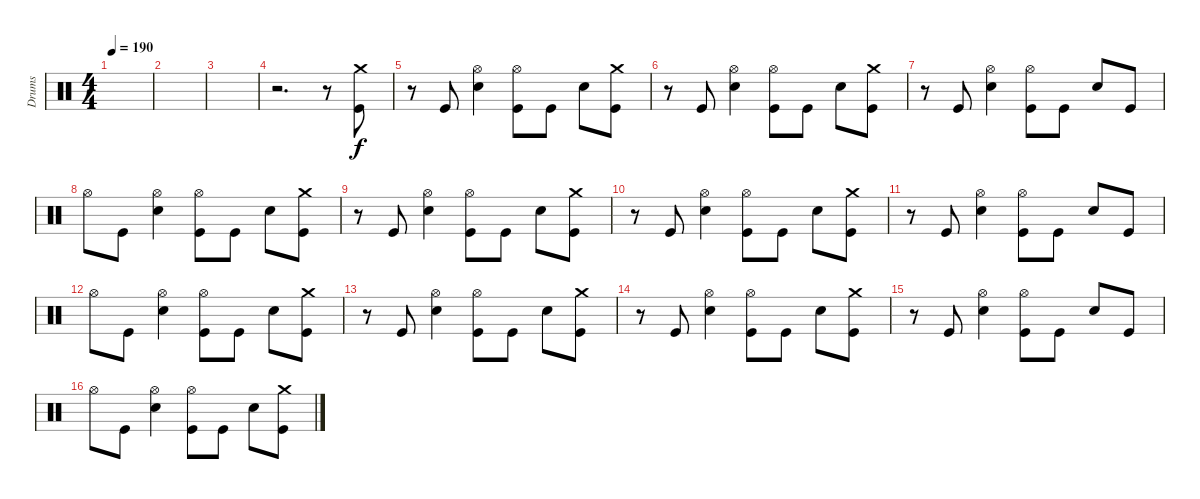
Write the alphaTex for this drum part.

\track ("Drums" "Drums") {instrument percussion}
\staff {score}
\articulation defaults
\ts (4 4)
\tempo 190
\clef neutral
\ks c
|
|
|
r.2{d} r.8 ("Crash medium (hit)" "Kick (hit)").8 |
r.8 "Kick (hit)".8 ("Hi-Hat (open)" "Snare (hit) 2").4 ("Hi-Hat (open)" "Kick (hit)").8 "Kick (hit)".8 "Snare (hit) 2".8 ("Crash medium (hit)" "Kick (hit)").8 |
r.8 "Kick (hit)".8 ("Hi-Hat (open)" "Snare (hit) 2").4 ("Hi-Hat (open)" "Kick (hit)").8 "Kick (hit)".8 "Snare (hit) 2".8 ("Crash medium (hit)" "Kick (hit)").8 |
r.8 "Kick (hit)".8 ("Hi-Hat (open)" "Snare (hit) 2").4 ("Hi-Hat (open)" "Kick (hit)").8 "Kick (hit)".8 "Snare (hit) 2".8 "Kick (hit)".8 |
"Hi-Hat (open)".8 "Kick (hit)".8 ("Hi-Hat (open)" "Snare (hit) 2").4 ("Hi-Hat (open)" "Kick (hit)").8 "Kick (hit)".8 "Snare (hit) 2".8 ("Crash medium (hit)" "Kick (hit)").8 |
r.8 "Kick (hit)".8 ("Hi-Hat (open)" "Snare (hit) 2").4 ("Hi-Hat (open)" "Kick (hit)").8 "Kick (hit)".8 "Snare (hit) 2".8 ("Crash medium (hit)" "Kick (hit)").8 |
r.8 "Kick (hit)".8 ("Hi-Hat (open)" "Snare (hit) 2").4 ("Hi-Hat (open)" "Kick (hit)").8 "Kick (hit)".8 "Snare (hit) 2".8 ("Crash medium (hit)" "Kick (hit)").8 |
r.8 "Kick (hit)".8 ("Hi-Hat (open)" "Snare (hit) 2").4 ("Hi-Hat (open)" "Kick (hit)").8 "Kick (hit)".8 "Snare (hit) 2".8 "Kick (hit)".8 |
"Hi-Hat (open)".8 "Kick (hit)".8 ("Hi-Hat (open)" "Snare (hit) 2").4 ("Hi-Hat (open)" "Kick (hit)").8 "Kick (hit)".8 "Snare (hit) 2".8 ("Crash medium (hit)" "Kick (hit)").8 |
r.8 "Kick (hit)".8 ("Hi-Hat (open)" "Snare (hit) 2").4 ("Hi-Hat (open)" "Kick (hit)").8 "Kick (hit)".8 "Snare (hit) 2".8 ("Crash medium (hit)" "Kick (hit)").8 |
r.8 "Kick (hit)".8 ("Hi-Hat (open)" "Snare (hit) 2").4 ("Hi-Hat (open)" "Kick (hit)").8 "Kick (hit)".8 "Snare (hit) 2".8 ("Crash medium (hit)" "Kick (hit)").8 |
r.8 "Kick (hit)".8 ("Hi-Hat (open)" "Snare (hit) 2").4 ("Hi-Hat (open)" "Kick (hit)").8 "Kick (hit)".8 "Snare (hit) 2".8 "Kick (hit)".8 |
"Hi-Hat (open)".8 "Kick (hit)".8 ("Hi-Hat (open)" "Snare (hit) 2").4 ("Hi-Hat (open)" "Kick (hit)").8 "Kick (hit)".8 "Snare (hit) 2".8 ("Crash medium (hit)" "Kick (hit)").8
